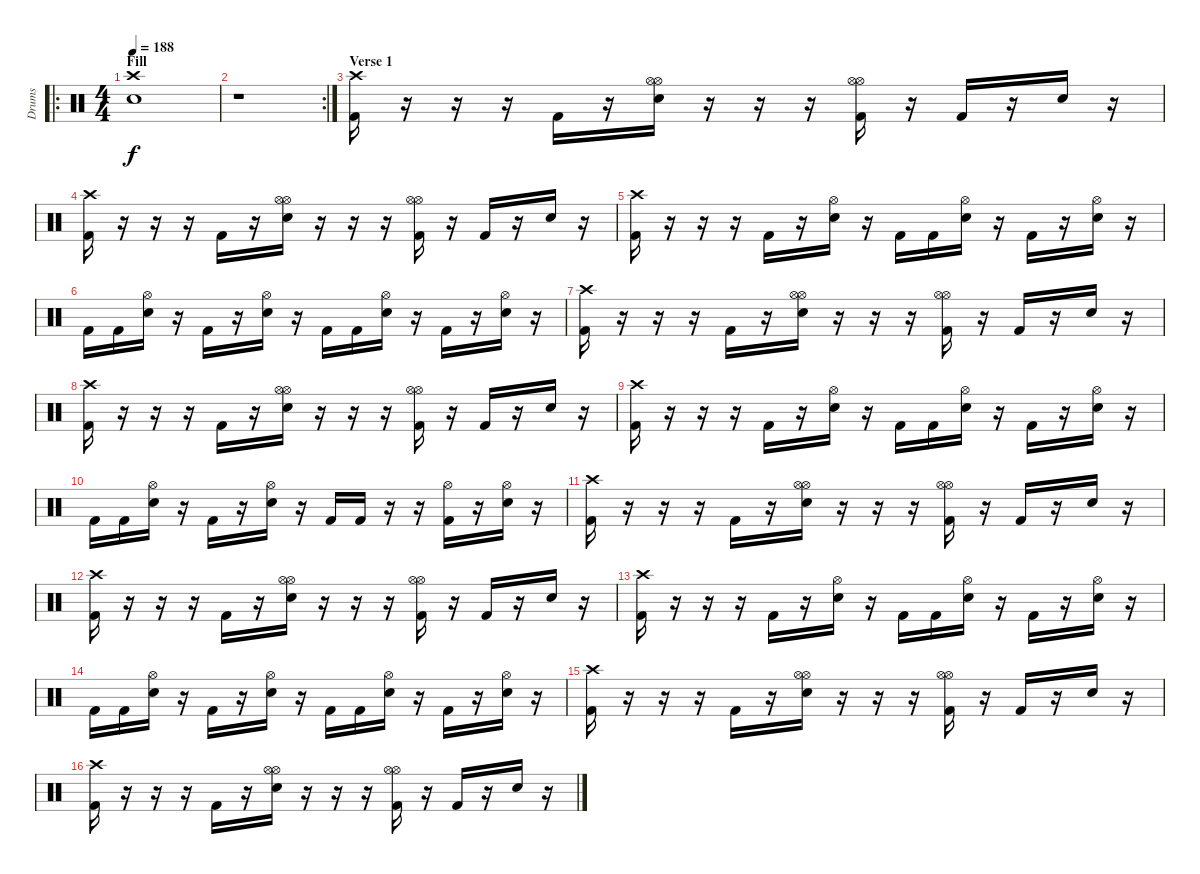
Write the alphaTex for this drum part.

\track ("Drums" "Drums") {instrument percussion}
\staff {score}
\articulation defaults
\ro
\ts (4 4)
\section ("" "Fill")
\tempo 188
\clef neutral
\ks c
("Crash high (hit)" "Electric Snare (hit)").1{dy f} |
\rc 2
r.1 |
\section ("" "Verse 1")
("Crash high (hit)" "Kick (hit) 2").16 r.16 r.16 r.16 "Kick (hit) 2".16 r.16 ("Hi-Hat (open)" "Hi-Hat (open)" "Electric Snare (hit)").16 r.16 r.16 r.16 ("Hi-Hat (open)" "Hi-Hat (open)" "Kick (hit) 2").16 r.16 "Kick (hit) 2".16 r.16 "Electric Snare (hit)".16 r.16 |
("Crash high (hit)" "Kick (hit) 2").16 r.16 r.16 r.16 "Kick (hit) 2".16 r.16 ("Hi-Hat (open)" "Hi-Hat (open)" "Electric Snare (hit)").16 r.16 r.16 r.16 ("Hi-Hat (open)" "Hi-Hat (open)" "Kick (hit) 2").16 r.16 "Kick (hit) 2".16 r.16 "Electric Snare (hit)".16 r.16 |
("Crash high (hit)" "Kick (hit) 2").16 r.16 r.16 r.16 "Kick (hit) 2".16 r.16 ("Hi-Hat (open)" "Electric Snare (hit)").16 r.16 "Kick (hit) 2".16 "Kick (hit) 2".16 ("Hi-Hat (open)" "Electric Snare (hit)").16 r.16 "Kick (hit) 2".16 r.16 ("Hi-Hat (open)" "Electric Snare (hit)").16 r.16 |
"Kick (hit) 2".16 "Kick (hit) 2".16 ("Hi-Hat (open)" "Electric Snare (hit)").16 r.16 "Kick (hit) 2".16 r.16 ("Hi-Hat (open)" "Electric Snare (hit)").16 r.16 "Kick (hit) 2".16 "Kick (hit) 2".16 ("Hi-Hat (open)" "Electric Snare (hit)").16 r.16 "Kick (hit) 2".16 r.16 ("Hi-Hat (open)" "Electric Snare (hit)").16 r.16 |
("Crash high (hit)" "Kick (hit) 2").16 r.16 r.16 r.16 "Kick (hit) 2".16 r.16 ("Hi-Hat (open)" "Hi-Hat (open)" "Electric Snare (hit)").16 r.16 r.16 r.16 ("Hi-Hat (open)" "Hi-Hat (open)" "Kick (hit) 2").16 r.16 "Kick (hit) 2".16 r.16 "Electric Snare (hit)".16 r.16 |
("Crash high (hit)" "Kick (hit) 2").16 r.16 r.16 r.16 "Kick (hit) 2".16 r.16 ("Hi-Hat (open)" "Hi-Hat (open)" "Electric Snare (hit)").16 r.16 r.16 r.16 ("Hi-Hat (open)" "Hi-Hat (open)" "Kick (hit) 2").16 r.16 "Kick (hit) 2".16 r.16 "Electric Snare (hit)".16 r.16 |
("Crash high (hit)" "Kick (hit) 2").16 r.16 r.16 r.16 "Kick (hit) 2".16 r.16 ("Hi-Hat (open)" "Electric Snare (hit)").16 r.16 "Kick (hit) 2".16 "Kick (hit) 2".16 ("Hi-Hat (open)" "Electric Snare (hit)").16 r.16 "Kick (hit) 2".16 r.16 ("Hi-Hat (open)" "Electric Snare (hit)").16 r.16 |
"Kick (hit) 2".16 "Kick (hit) 2".16 ("Hi-Hat (open)" "Electric Snare (hit)").16 r.16 "Kick (hit) 2".16 r.16 ("Hi-Hat (open)" "Electric Snare (hit)").16 r.16 "Kick (hit) 2".16 "Kick (hit) 2".16 r.16 r.16 ("Hi-Hat (open)" "Kick (hit) 2").16 r.16 ("Hi-Hat (open)" "Electric Snare (hit)").16 r.16 |
("Crash high (hit)" "Kick (hit) 2").16 r.16 r.16 r.16 "Kick (hit) 2".16 r.16 ("Hi-Hat (open)" "Hi-Hat (open)" "Electric Snare (hit)").16 r.16 r.16 r.16 ("Hi-Hat (open)" "Hi-Hat (open)" "Kick (hit) 2").16 r.16 "Kick (hit) 2".16 r.16 "Electric Snare (hit)".16 r.16 |
("Crash high (hit)" "Kick (hit) 2").16 r.16 r.16 r.16 "Kick (hit) 2".16 r.16 ("Hi-Hat (open)" "Hi-Hat (open)" "Electric Snare (hit)").16 r.16 r.16 r.16 ("Hi-Hat (open)" "Hi-Hat (open)" "Kick (hit) 2").16 r.16 "Kick (hit) 2".16 r.16 "Electric Snare (hit)".16 r.16 |
("Crash high (hit)" "Kick (hit) 2").16 r.16 r.16 r.16 "Kick (hit) 2".16 r.16 ("Hi-Hat (open)" "Electric Snare (hit)").16 r.16 "Kick (hit) 2".16 "Kick (hit) 2".16 ("Hi-Hat (open)" "Electric Snare (hit)").16 r.16 "Kick (hit) 2".16 r.16 ("Hi-Hat (open)" "Electric Snare (hit)").16 r.16 |
"Kick (hit) 2".16 "Kick (hit) 2".16 ("Hi-Hat (open)" "Electric Snare (hit)").16 r.16 "Kick (hit) 2".16 r.16 ("Hi-Hat (open)" "Electric Snare (hit)").16 r.16 "Kick (hit) 2".16 "Kick (hit) 2".16 ("Hi-Hat (open)" "Electric Snare (hit)").16 r.16 "Kick (hit) 2".16 r.16 ("Hi-Hat (open)" "Electric Snare (hit)").16 r.16 |
("Crash high (hit)" "Kick (hit) 2").16 r.16 r.16 r.16 "Kick (hit) 2".16 r.16 ("Hi-Hat (open)" "Hi-Hat (open)" "Electric Snare (hit)").16 r.16 r.16 r.16 ("Hi-Hat (open)" "Hi-Hat (open)" "Kick (hit) 2").16 r.16 "Kick (hit) 2".16 r.16 "Electric Snare (hit)".16 r.16 |
("Crash high (hit)" "Kick (hit) 2").16 r.16 r.16 r.16 "Kick (hit) 2".16 r.16 ("Hi-Hat (open)" "Hi-Hat (open)" "Electric Snare (hit)").16 r.16 r.16 r.16 ("Hi-Hat (open)" "Hi-Hat (open)" "Kick (hit) 2").16 r.16 "Kick (hit) 2".16 r.16 "Electric Snare (hit)".16 r.16
